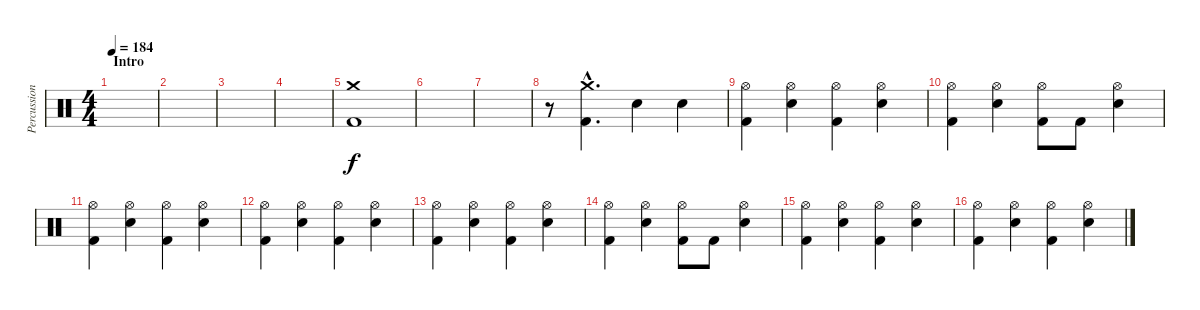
\track ("Percussioni" "Percussion") {instrument percussion}
\staff {score}
\articulation defaults
\ts (4 4)
\section ("" "Intro")
\tempo 184
\clef neutral
\ks c
|
|
|
|
("Crash medium (hit)" "Kick (hit) 2").1 |
|
|
r.8 ("Crash medium (hit)"{hac} "Kick (hit) 2"{hac}).4{d} "Electric Snare (hit)".4 "Electric Snare (hit)".4 |
("Hi-Hat (open)" "Kick (hit) 2").4 ("Hi-Hat (open)" "Electric Snare (hit)").4 ("Hi-Hat (open)" "Kick (hit) 2").4 ("Hi-Hat (open)" "Electric Snare (hit)").4 |
("Hi-Hat (open)" "Kick (hit) 2").4 ("Hi-Hat (open)" "Electric Snare (hit)").4 ("Hi-Hat (open)" "Kick (hit) 2").8 "Kick (hit) 2".8 ("Hi-Hat (open)" "Electric Snare (hit)").4 |
("Hi-Hat (open)" "Kick (hit) 2").4 ("Hi-Hat (open)" "Electric Snare (hit)").4 ("Hi-Hat (open)" "Kick (hit) 2").4 ("Hi-Hat (open)" "Electric Snare (hit)").4 |
("Hi-Hat (open)" "Kick (hit) 2").4 ("Hi-Hat (open)" "Electric Snare (hit)").4 ("Hi-Hat (open)" "Kick (hit) 2").4 ("Hi-Hat (open)" "Electric Snare (hit)").4 |
("Hi-Hat (open)" "Kick (hit) 2").4 ("Hi-Hat (open)" "Electric Snare (hit)").4 ("Hi-Hat (open)" "Kick (hit) 2").4 ("Hi-Hat (open)" "Electric Snare (hit)").4 |
("Hi-Hat (open)" "Kick (hit) 2").4 ("Hi-Hat (open)" "Electric Snare (hit)").4 ("Hi-Hat (open)" "Kick (hit) 2").8 "Kick (hit) 2".8 ("Hi-Hat (open)" "Electric Snare (hit)").4 |
("Hi-Hat (open)" "Kick (hit) 2").4 ("Hi-Hat (open)" "Electric Snare (hit)").4 ("Hi-Hat (open)" "Kick (hit) 2").4 ("Hi-Hat (open)" "Electric Snare (hit)").4 |
("Hi-Hat (open)" "Kick (hit) 2").4 ("Hi-Hat (open)" "Electric Snare (hit)").4 ("Hi-Hat (open)" "Kick (hit) 2").4 ("Hi-Hat (open)" "Electric Snare (hit)").4
